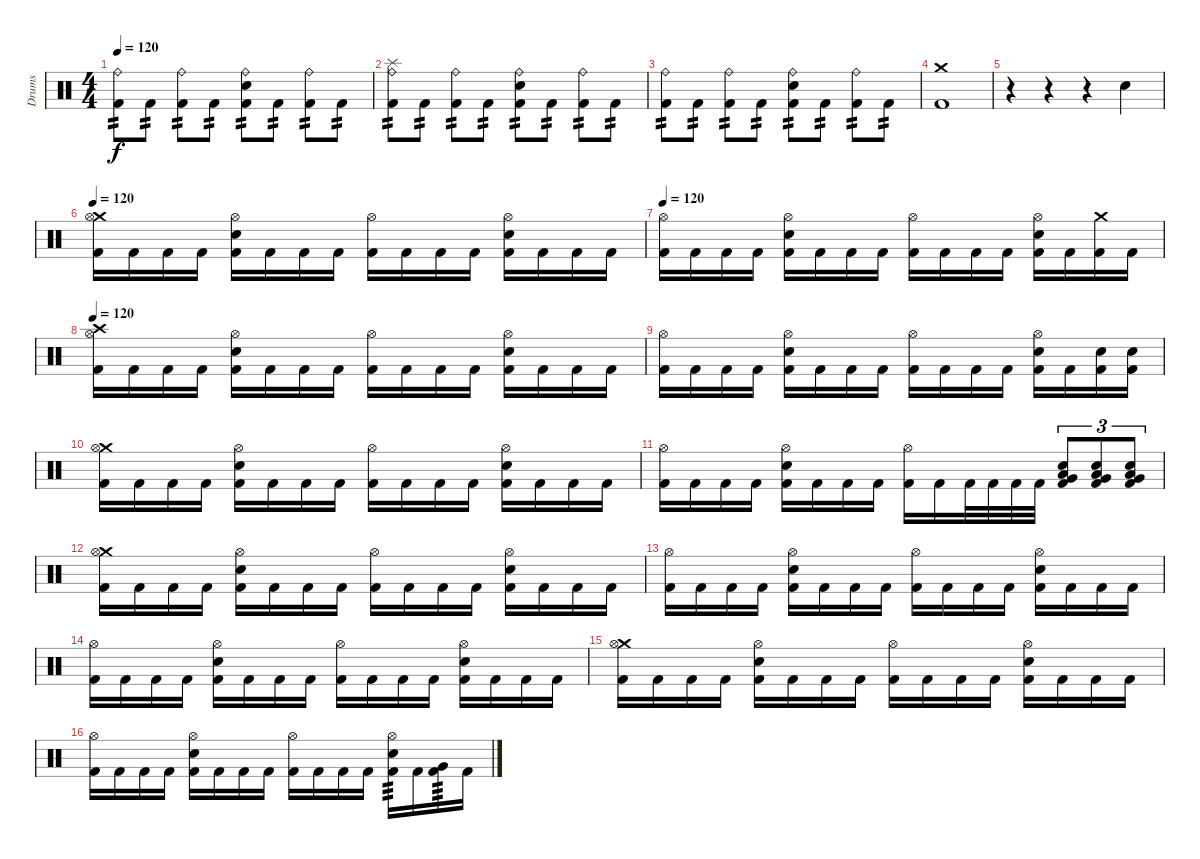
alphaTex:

\track ("Drums" "Drums") {instrument percussion}
\staff {score}
\articulation defaults
\ts (4 4)
\tempo 120
\clef neutral
\ks c
("Ride (bell)" "Kick (hit) 2").8{tp 2 dy f} "Kick (hit) 2".8{tp 2} ("Ride (bell)" "Kick (hit) 2").8{tp 2} "Kick (hit) 2".8{tp 2} ("Electric Snare (hit)" "Ride (bell)" "Kick (hit) 2").8{tp 2} "Kick (hit) 2".8{tp 2} ("Ride (bell)" "Kick (hit) 2").8{tp 2} "Kick (hit) 2".8{tp 2} |
("Splash (hit)" "Ride (bell)" "Kick (hit) 2").8{tp 2} "Kick (hit) 2".8{tp 2} ("Ride (bell)" "Kick (hit) 2").8{tp 2} "Kick (hit) 2".8{tp 2} ("Electric Snare (hit)" "Ride (bell)" "Kick (hit) 2").8{tp 2} "Kick (hit) 2".8{tp 2} ("Ride (bell)" "Kick (hit) 2").8{tp 2} "Kick (hit) 2".8{tp 2} |
("Ride (bell)" "Kick (hit) 2").8{tp 2} "Kick (hit) 2".8{tp 2} ("Ride (bell)" "Kick (hit) 2").8{tp 2} "Kick (hit) 2".8{tp 2} ("Electric Snare (hit)" "Ride (bell)" "Kick (hit) 2").8{tp 2} "Kick (hit) 2".8{tp 2} ("Ride (bell)" "Kick (hit) 2").8{tp 2} "Kick (hit) 2".8{tp 2} |
("Crash medium (hit)" "Kick (hit) 2").1 |
r.4 r.4 r.4 "Electric Snare (hit)".4 |
\tempo 120
("Crash medium (hit)" "Hi-Hat (open)" "Kick (hit) 2").16 "Kick (hit) 2".16 "Kick (hit) 2".16 "Kick (hit) 2".16 ("Electric Snare (hit)" "Hi-Hat (open)" "Kick (hit) 2").16 "Kick (hit) 2".16 "Kick (hit) 2".16 "Kick (hit) 2".16 ("Hi-Hat (open)" "Kick (hit) 2").16 "Kick (hit) 2".16 "Kick (hit) 2".16 "Kick (hit) 2".16 ("Hi-Hat (open)" "Electric Snare (hit)" "Kick (hit) 2").16 "Kick (hit) 2".16 "Kick (hit) 2".16 "Kick (hit) 2".16 |
\tempo 120
("Hi-Hat (open)" "Kick (hit) 2").16 "Kick (hit) 2".16 "Kick (hit) 2".16 "Kick (hit) 2".16 ("Electric Snare (hit)" "Hi-Hat (open)" "Kick (hit) 2").16 "Kick (hit) 2".16 "Kick (hit) 2".16 "Kick (hit) 2".16 ("Hi-Hat (open)" "Kick (hit) 2").16 "Kick (hit) 2".16 "Kick (hit) 2".16 "Kick (hit) 2".16 ("Hi-Hat (open)" "Electric Snare (hit)" "Kick (hit) 2").16 "Kick (hit) 2".16 ("Crash medium (hit)" "Kick (hit) 2").16 "Kick (hit) 2".16 |
\tempo 120
("Crash high (hit)" "Hi-Hat (open)" "Kick (hit) 2").16 "Kick (hit) 2".16 "Kick (hit) 2".16 "Kick (hit) 2".16 ("Electric Snare (hit)" "Hi-Hat (open)" "Kick (hit) 2").16 "Kick (hit) 2".16 "Kick (hit) 2".16 "Kick (hit) 2".16 ("Hi-Hat (open)" "Kick (hit) 2").16 "Kick (hit) 2".16 "Kick (hit) 2".16 "Kick (hit) 2".16 ("Hi-Hat (open)" "Electric Snare (hit)" "Kick (hit) 2").16 "Kick (hit) 2".16 "Kick (hit) 2".16 "Kick (hit) 2".16 |
("Hi-Hat (open)" "Kick (hit) 2").16 "Kick (hit) 2".16 "Kick (hit) 2".16 "Kick (hit) 2".16 ("Electric Snare (hit)" "Hi-Hat (open)" "Kick (hit) 2").16 "Kick (hit) 2".16 "Kick (hit) 2".16 "Kick (hit) 2".16 ("Hi-Hat (open)" "Kick (hit) 2").16 "Kick (hit) 2".16 "Kick (hit) 2".16 "Kick (hit) 2".16 ("Hi-Hat (open)" "Electric Snare (hit)" "Kick (hit) 2").16 "Kick (hit) 2".16 ("Electric Snare (hit)" "Kick (hit) 2").16 ("Electric Snare (hit)" "Kick (hit) 2").16 |
("Crash medium (hit)" "Hi-Hat (open)" "Kick (hit) 2").16 "Kick (hit) 2".16 "Kick (hit) 2".16 "Kick (hit) 2".16 ("Electric Snare (hit)" "Hi-Hat (open)" "Kick (hit) 2").16 "Kick (hit) 2".16 "Kick (hit) 2".16 "Kick (hit) 2".16 ("Hi-Hat (open)" "Kick (hit) 2").16 "Kick (hit) 2".16 "Kick (hit) 2".16 "Kick (hit) 2".16 ("Hi-Hat (open)" "Electric Snare (hit)" "Kick (hit) 2").16 "Kick (hit) 2".16 "Kick (hit) 2".16 "Kick (hit) 2".16 |
("Hi-Hat (open)" "Kick (hit) 2").16 "Kick (hit) 2".16 "Kick (hit) 2".16 "Kick (hit) 2".16 ("Electric Snare (hit)" "Hi-Hat (open)" "Kick (hit) 2").16 "Kick (hit) 2".16 "Kick (hit) 2".16 "Kick (hit) 2".16 ("Hi-Hat (open)" "Kick (hit) 2").16 "Kick (hit) 2".16 "Kick (hit) 2".32 "Kick (hit) 2".32 "Kick (hit) 2".32 "Kick (hit) 2".32 ("Electric Snare (hit)" "Low Floor Tom (hit)" "Very Low Tom (hit)" "Kick (hit) 2").8{tu (3 2)} ("Electric Snare (hit)" "Low Floor Tom (hit)" "Very Low Tom (hit)" "Kick (hit) 2").8{tu (3 2)} ("Electric Snare (hit)" "Low Floor Tom (hit)" "Very Low Tom (hit)" "Kick (hit) 2").8{tu (3 2)} |
("Crash medium (hit)" "Hi-Hat (open)" "Kick (hit) 2").16 "Kick (hit) 2".16 "Kick (hit) 2".16 "Kick (hit) 2".16 ("Electric Snare (hit)" "Hi-Hat (open)" "Kick (hit) 2").16 "Kick (hit) 2".16 "Kick (hit) 2".16 "Kick (hit) 2".16 ("Hi-Hat (open)" "Kick (hit) 2").16 "Kick (hit) 2".16 "Kick (hit) 2".16 "Kick (hit) 2".16 ("Hi-Hat (open)" "Electric Snare (hit)" "Kick (hit) 2").16 "Kick (hit) 2".16 "Kick (hit) 2".16 "Kick (hit) 2".16 |
("Hi-Hat (open)" "Kick (hit) 2").16 "Kick (hit) 2".16 "Kick (hit) 2".16 "Kick (hit) 2".16 ("Electric Snare (hit)" "Hi-Hat (open)" "Kick (hit) 2").16 "Kick (hit) 2".16 "Kick (hit) 2".16 "Kick (hit) 2".16 ("Hi-Hat (open)" "Kick (hit) 2").16 "Kick (hit) 2".16 "Kick (hit) 2".16 "Kick (hit) 2".16 ("Hi-Hat (open)" "Electric Snare (hit)" "Kick (hit) 2").16 "Kick (hit) 2".16 "Kick (hit) 2".16 "Kick (hit) 2".16 |
("Hi-Hat (open)" "Kick (hit) 2").16 "Kick (hit) 2".16 "Kick (hit) 2".16 "Kick (hit) 2".16 ("Electric Snare (hit)" "Hi-Hat (open)" "Kick (hit) 2").16 "Kick (hit) 2".16 "Kick (hit) 2".16 "Kick (hit) 2".16 ("Hi-Hat (open)" "Kick (hit) 2").16 "Kick (hit) 2".16 "Kick (hit) 2".16 "Kick (hit) 2".16 ("Hi-Hat (open)" "Electric Snare (hit)" "Kick (hit) 2").16 "Kick (hit) 2".16 "Kick (hit) 2".16 "Kick (hit) 2".16 |
("Crash medium (hit)" "Hi-Hat (open)" "Kick (hit) 2").16 "Kick (hit) 2".16 "Kick (hit) 2".16 "Kick (hit) 2".16 ("Electric Snare (hit)" "Hi-Hat (open)" "Kick (hit) 2").16 "Kick (hit) 2".16 "Kick (hit) 2".16 "Kick (hit) 2".16 ("Hi-Hat (open)" "Kick (hit) 2").16 "Kick (hit) 2".16 "Kick (hit) 2".16 "Kick (hit) 2".16 ("Hi-Hat (open)" "Electric Snare (hit)" "Kick (hit) 2").16 "Kick (hit) 2".16 "Kick (hit) 2".16 "Kick (hit) 2".16 |
("Hi-Hat (open)" "Kick (hit) 2").16 "Kick (hit) 2".16 "Kick (hit) 2".16 "Kick (hit) 2".16 ("Electric Snare (hit)" "Hi-Hat (open)" "Kick (hit) 2").16 "Kick (hit) 2".16 "Kick (hit) 2".16 "Kick (hit) 2".16 ("Hi-Hat (open)" "Kick (hit) 2").16 "Kick (hit) 2".16 "Kick (hit) 2".16 "Kick (hit) 2".16 ("Hi-Hat (open)" "Electric Snare (hit)" "Kick (hit) 2").16{tp 3} "Kick (hit) 2".16 ("Very Low Tom (hit)" "Kick (hit) 2").16{tp 3} "Kick (hit) 2".16
